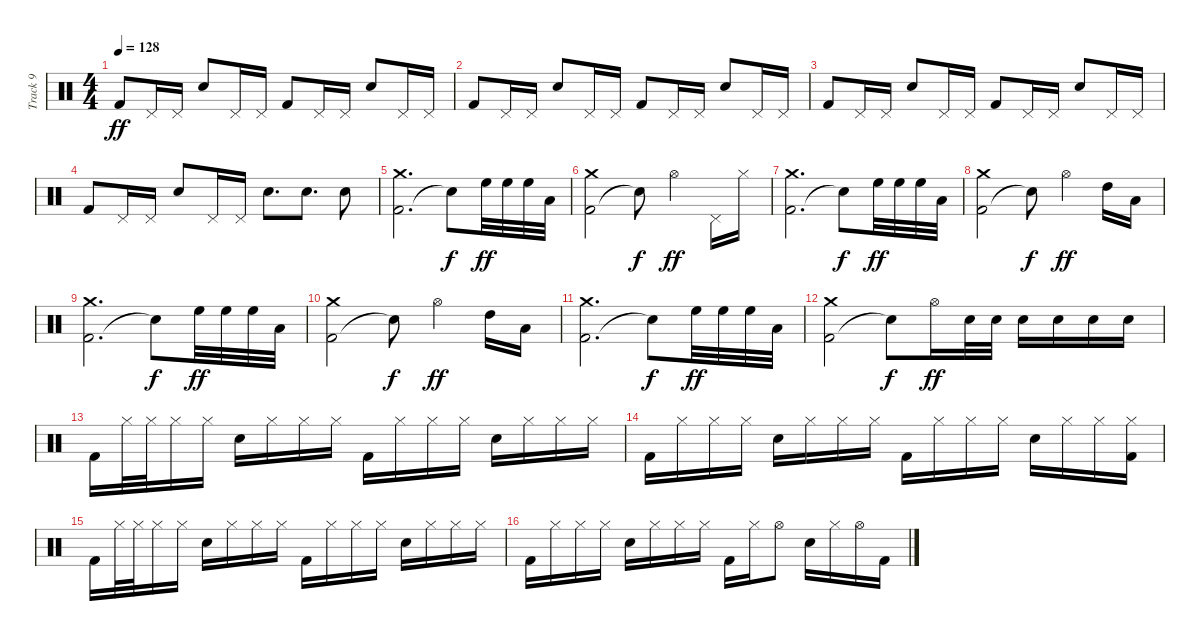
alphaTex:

\track ("Track 9" "Track 9") {instrument percussion}
\staff {score}
\articulation defaults
\ts (4 4)
\tempo 128
\clef neutral
\ks c "Kick (hit) 2".8{dy ff} "Pedal Hi-Hat (hit)".16 "Pedal Hi-Hat (hit)".16 "Snare (hit) 2".8 "Pedal Hi-Hat (hit)".16 "Pedal Hi-Hat (hit)".16 "Kick (hit) 2".8 "Pedal Hi-Hat (hit)".16 "Pedal Hi-Hat (hit)".16 "Snare (hit) 2".8 "Pedal Hi-Hat (hit)".16 "Pedal Hi-Hat (hit)".16
|
"Kick (hit) 2".8 "Pedal Hi-Hat (hit)".16 "Pedal Hi-Hat (hit)".16 "Snare (hit) 2".8 "Pedal Hi-Hat (hit)".16 "Pedal Hi-Hat (hit)".16 "Kick (hit) 2".8 "Pedal Hi-Hat (hit)".16 "Pedal Hi-Hat (hit)".16 "Snare (hit) 2".8 "Pedal Hi-Hat (hit)".16 "Pedal Hi-Hat (hit)".16 |
"Kick (hit) 2".8 "Pedal Hi-Hat (hit)".16 "Pedal Hi-Hat (hit)".16 "Snare (hit) 2".8 "Pedal Hi-Hat (hit)".16 "Pedal Hi-Hat (hit)".16 "Kick (hit) 2".8 "Pedal Hi-Hat (hit)".16 "Pedal Hi-Hat (hit)".16 "Snare (hit) 2".8 "Pedal Hi-Hat (hit)".16 "Pedal Hi-Hat (hit)".16 |
"Kick (hit) 2".8 "Pedal Hi-Hat (hit)".16 "Pedal Hi-Hat (hit)".16 "Snare (hit) 2".8 "Pedal Hi-Hat (hit)".16 "Pedal Hi-Hat (hit)".16 "Snare (hit) 2".8{d} "Snare (hit) 2".8{d} "Snare (hit) 2".8 |
("Kick (hit) 2" "Crash medium (hit)").2{d} "Snare (hit)"{t}.8{dy f} "High Floor Tom (hit)".32{dy ff} "High Floor Tom (hit)".32 "High Floor Tom (hit)".32 "Low Tom (hit)".32 |
("Kick (hit) 2" "Crash medium (hit)").2 "Snare (hit)"{t}.8{dy f} "Hi-Hat (open)".4{dy ff} "Pedal Hi-Hat (hit)".16 "Hi-Hat (closed)".16 |
("Kick (hit) 2" "Crash medium (hit)").2{d} "Snare (hit)"{t}.8{dy f} "High Floor Tom (hit)".32{dy ff} "High Floor Tom (hit)".32 "High Floor Tom (hit)".32 "Low Tom (hit)".32 |
("Kick (hit) 2" "Crash medium (hit)").2 "Snare (hit)"{t}.8{dy f} "Hi-Hat (open)".4{dy ff} "High Tom (hit)".16 "Low Tom (hit)".16 |
("Kick (hit) 2" "Crash medium (hit)").2{d} "Snare (hit)"{t}.8{dy f} "High Floor Tom (hit)".32{dy ff} "High Floor Tom (hit)".32 "High Floor Tom (hit)".32 "Low Tom (hit)".32 |
("Kick (hit) 2" "Crash medium (hit)").2 "Snare (hit)"{t}.8{dy f} "Hi-Hat (open)".4{dy ff} "High Tom (hit)".16 "Low Tom (hit)".16 |
("Kick (hit) 2" "Crash medium (hit)").2{d} "Snare (hit)"{t}.8{dy f} "High Floor Tom (hit)".32{dy ff} "High Floor Tom (hit)".32 "High Floor Tom (hit)".32 "Low Tom (hit)".32 |
("Kick (hit) 2" "Crash medium (hit)").2 "Snare (hit)"{t}.8{dy f} "Hi-Hat (open)".16{dy ff} "Snare (hit) 2".32 "Snare (hit) 2".32 "Snare (hit) 2".16 "Snare (hit) 2".16 "Snare (hit) 2".16 "Snare (hit) 2".16 |
"Kick (hit) 2".16 "Hi-Hat (closed)".32 "Hi-Hat (closed)".32 "Hi-Hat (closed)".16 "Hi-Hat (closed)".16 "Snare (hit) 2".16 "Hi-Hat (closed)".16 "Hi-Hat (closed)".16 "Hi-Hat (closed)".16 "Kick (hit) 2".16 "Hi-Hat (closed)".16 "Hi-Hat (closed)".16 "Hi-Hat (closed)".16 "Snare (hit) 2".16 "Hi-Hat (closed)".16 "Hi-Hat (closed)".16 "Hi-Hat (closed)".16 |
"Kick (hit) 2".16 "Hi-Hat (closed)".16 "Hi-Hat (closed)".16 "Hi-Hat (closed)".16 "Snare (hit) 2".16 "Hi-Hat (closed)".16 "Hi-Hat (closed)".16 "Hi-Hat (closed)".16 "Kick (hit) 2".16 "Hi-Hat (closed)".16 "Hi-Hat (closed)".16 "Hi-Hat (closed)".16 "Snare (hit) 2".16 "Hi-Hat (closed)".16 "Hi-Hat (closed)".16 ("Kick (hit) 2" "Hi-Hat (closed)").16 |
"Kick (hit) 2".16 "Hi-Hat (closed)".32 "Hi-Hat (closed)".32 "Hi-Hat (closed)".16 "Hi-Hat (closed)".16 "Snare (hit) 2".16 "Hi-Hat (closed)".16 "Hi-Hat (closed)".16 "Hi-Hat (closed)".16 "Kick (hit) 2".16 "Hi-Hat (closed)".16 "Hi-Hat (closed)".16 "Hi-Hat (closed)".16 "Snare (hit) 2".16 "Hi-Hat (closed)".16 "Hi-Hat (closed)".16 "Hi-Hat (closed)".16 |
"Kick (hit) 2".16 "Hi-Hat (closed)".16 "Hi-Hat (closed)".16 "Hi-Hat (closed)".16 "Snare (hit) 2".16 "Hi-Hat (closed)".16 "Hi-Hat (closed)".16 "Hi-Hat (closed)".16 "Kick (hit) 2".16 "Hi-Hat (closed)".16 "Hi-Hat (open)".8 "Snare (hit) 2".16 "Hi-Hat (closed)".16 "Hi-Hat (open)".16 "Kick (hit) 2".16
